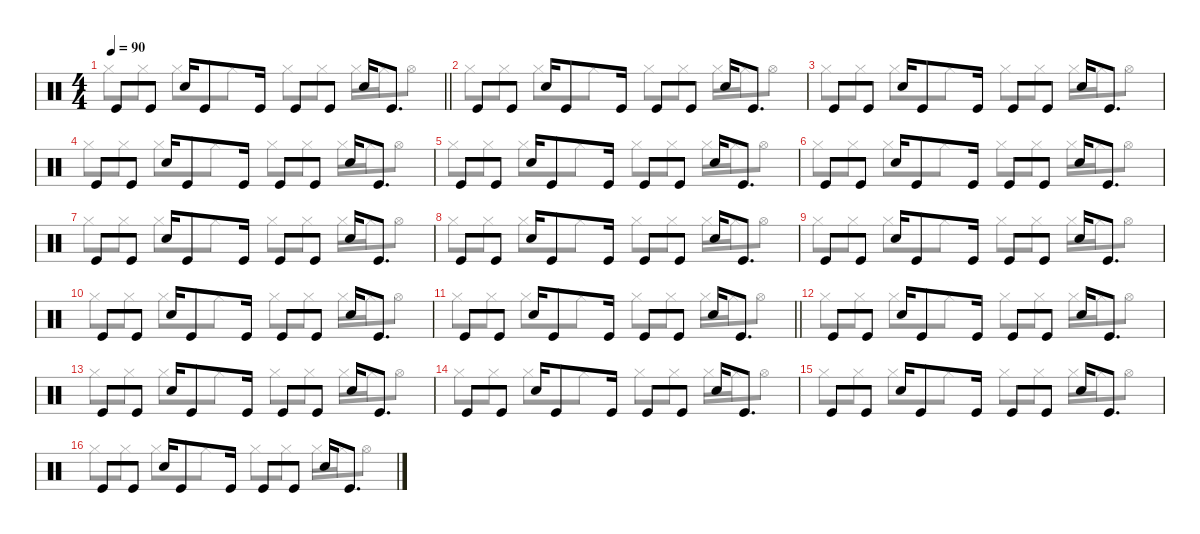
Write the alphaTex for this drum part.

\defaultSystemsLayout 4
\hideDynamics
\bracketExtendMode nobrackets
\singleTrackTrackNamePolicy hidden
\multiTrackTrackNamePolicy hidden
\otherSystemsTrackNameOrientation horizontal
\track ("Drumkit" "drm.") {instrument percussion}
\staff {score}
\articulation defaults
\voice
\ts (4 4)
\tempo 90
\clef neutral
\barLineRight lightlight
\ks c "Kick (hit)".8{dy f beam Up} "Kick (hit)".8{beam Up} "Snare (hit) 2".16{beam Up} "Kick (hit)".8{beam Up} "Kick (hit)".16{beam Up} "Kick (hit)".8{beam Up} "Kick (hit)".8{beam Up} "Snare (hit) 2".16{beam Up} "Kick (hit)".8{d beam Up}
|
"Kick (hit)".8{beam Up} "Kick (hit)".8{beam Up} "Snare (hit) 2".16{beam Up} "Kick (hit)".8{beam Up} "Kick (hit)".16{beam Up} "Kick (hit)".8{beam Up} "Kick (hit)".8{beam Up} "Snare (hit) 2".16{beam Up} "Kick (hit)".8{d beam Up} |
"Kick (hit)".8{beam Up} "Kick (hit)".8{beam Up} "Snare (hit) 2".16{beam Up} "Kick (hit)".8{beam Up} "Kick (hit)".16{beam Up} "Kick (hit)".8{beam Up} "Kick (hit)".8{beam Up} "Snare (hit) 2".16{beam Up} "Kick (hit)".8{d beam Up} |
"Kick (hit)".8{beam Up} "Kick (hit)".8{beam Up} "Snare (hit) 2".16{beam Up} "Kick (hit)".8{beam Up} "Kick (hit)".16{beam Up} "Kick (hit)".8{beam Up} "Kick (hit)".8{beam Up} "Snare (hit) 2".16{beam Up} "Kick (hit)".8{d beam Up} |
"Kick (hit)".8{beam Up} "Kick (hit)".8{beam Up} "Snare (hit) 2".16{beam Up} "Kick (hit)".8{beam Up} "Kick (hit)".16{beam Up} "Kick (hit)".8{beam Up} "Kick (hit)".8{beam Up} "Snare (hit) 2".16{beam Up} "Kick (hit)".8{d beam Up} |
"Kick (hit)".8{beam Up} "Kick (hit)".8{beam Up} "Snare (hit) 2".16{beam Up} "Kick (hit)".8{beam Up} "Kick (hit)".16{beam Up} "Kick (hit)".8{beam Up} "Kick (hit)".8{beam Up} "Snare (hit) 2".16{beam Up} "Kick (hit)".8{d beam Up} |
"Kick (hit)".8{beam Up} "Kick (hit)".8{beam Up} "Snare (hit) 2".16{beam Up} "Kick (hit)".8{beam Up} "Kick (hit)".16{beam Up} "Kick (hit)".8{beam Up} "Kick (hit)".8{beam Up} "Snare (hit) 2".16{beam Up} "Kick (hit)".8{d beam Up} |
"Kick (hit)".8{beam Up} "Kick (hit)".8{beam Up} "Snare (hit) 2".16{beam Up} "Kick (hit)".8{beam Up} "Kick (hit)".16{beam Up} "Kick (hit)".8{beam Up} "Kick (hit)".8{beam Up} "Snare (hit) 2".16{beam Up} "Kick (hit)".8{d beam Up} |
"Kick (hit)".8{beam Up} "Kick (hit)".8{beam Up} "Snare (hit) 2".16{beam Up} "Kick (hit)".8{beam Up} "Kick (hit)".16{beam Up} "Kick (hit)".8{beam Up} "Kick (hit)".8{beam Up} "Snare (hit) 2".16{beam Up} "Kick (hit)".8{d beam Up} |
"Kick (hit)".8{beam Up} "Kick (hit)".8{beam Up} "Snare (hit) 2".16{beam Up} "Kick (hit)".8{beam Up} "Kick (hit)".16{beam Up} "Kick (hit)".8{beam Up} "Kick (hit)".8{beam Up} "Snare (hit) 2".16{beam Up} "Kick (hit)".8{d beam Up} |
\barLineRight lightlight "Kick (hit)".8{beam Up} "Kick (hit)".8{beam Up} "Snare (hit) 2".16{beam Up} "Kick (hit)".8{beam Up} "Kick (hit)".16{beam Up} "Kick (hit)".8{beam Up} "Kick (hit)".8{beam Up} "Snare (hit) 2".16{beam Up} "Kick (hit)".8{d beam Up}
|
"Kick (hit)".8{beam Up} "Kick (hit)".8{beam Up} "Snare (hit) 2".16{beam Up} "Kick (hit)".8{beam Up} "Kick (hit)".16{beam Up} "Kick (hit)".8{beam Up} "Kick (hit)".8{beam Up} "Snare (hit) 2".16{beam Up} "Kick (hit)".8{d beam Up} |
"Kick (hit)".8{beam Up} "Kick (hit)".8{beam Up} "Snare (hit) 2".16{beam Up} "Kick (hit)".8{beam Up} "Kick (hit)".16{beam Up} "Kick (hit)".8{beam Up} "Kick (hit)".8{beam Up} "Snare (hit) 2".16{beam Up} "Kick (hit)".8{d beam Up} |
"Kick (hit)".8{beam Up} "Kick (hit)".8{beam Up} "Snare (hit) 2".16{beam Up} "Kick (hit)".8{beam Up} "Kick (hit)".16{beam Up} "Kick (hit)".8{beam Up} "Kick (hit)".8{beam Up} "Snare (hit) 2".16{beam Up} "Kick (hit)".8{d beam Up} |
"Kick (hit)".8{beam Up} "Kick (hit)".8{beam Up} "Snare (hit) 2".16{beam Up} "Kick (hit)".8{beam Up} "Kick (hit)".16{beam Up} "Kick (hit)".8{beam Up} "Kick (hit)".8{beam Up} "Snare (hit) 2".16{beam Up} "Kick (hit)".8{d beam Up} |
"Kick (hit)".8{beam Up} "Kick (hit)".8{beam Up} "Snare (hit) 2".16{beam Up} "Kick (hit)".8{beam Up} "Kick (hit)".16{beam Up} "Kick (hit)".8{beam Up} "Kick (hit)".8{beam Up} "Snare (hit) 2".16{beam Up} "Kick (hit)".8{d beam Up}
\voice
\clef neutral
\ottava regular
\simile none
\barLineRight lightlight
\ks c "Hi-Hat (closed)".8{dy f beam Down} "Hi-Hat (closed)".8{beam Down} "Hi-Hat (closed)".8{beam Down} "Hi-Hat (closed)".8{beam Down} "Hi-Hat (closed)".8{beam Down} "Hi-Hat (closed)".8{beam Down} "Hi-Hat (closed)".16{beam Down} "Hi-Hat (closed)".16{beam Down} "Hi-Hat (open)".8{beam Down}
|
"Hi-Hat (closed)".8{beam Down} "Hi-Hat (closed)".8{beam Down} "Hi-Hat (closed)".8{beam Down} "Hi-Hat (closed)".8{beam Down} "Hi-Hat (closed)".8{beam Down} "Hi-Hat (closed)".8{beam Down} "Hi-Hat (closed)".16{beam Down} "Hi-Hat (closed)".16{beam Down} "Hi-Hat (open)".8{beam Down} |
"Hi-Hat (closed)".8{beam Down} "Hi-Hat (closed)".8{beam Down} "Hi-Hat (closed)".8{beam Down} "Hi-Hat (closed)".8{beam Down} "Hi-Hat (closed)".8{beam Down} "Hi-Hat (closed)".8{beam Down} "Hi-Hat (closed)".16{beam Down} "Hi-Hat (closed)".16{beam Down} "Hi-Hat (open)".8{beam Down} |
"Hi-Hat (closed)".8{beam Down} "Hi-Hat (closed)".8{beam Down} "Hi-Hat (closed)".8{beam Down} "Hi-Hat (closed)".8{beam Down} "Hi-Hat (closed)".8{beam Down} "Hi-Hat (closed)".8{beam Down} "Hi-Hat (closed)".16{beam Down} "Hi-Hat (closed)".16{beam Down} "Hi-Hat (open)".8{beam Down} |
"Hi-Hat (closed)".8{beam Down} "Hi-Hat (closed)".8{beam Down} "Hi-Hat (closed)".8{beam Down} "Hi-Hat (closed)".8{beam Down} "Hi-Hat (closed)".8{beam Down} "Hi-Hat (closed)".8{beam Down} "Hi-Hat (closed)".16{beam Down} "Hi-Hat (closed)".16{beam Down} "Hi-Hat (open)".8{beam Down} |
"Hi-Hat (closed)".8{beam Down} "Hi-Hat (closed)".8{beam Down} "Hi-Hat (closed)".8{beam Down} "Hi-Hat (closed)".8{beam Down} "Hi-Hat (closed)".8{beam Down} "Hi-Hat (closed)".8{beam Down} "Hi-Hat (closed)".16{beam Down} "Hi-Hat (closed)".16{beam Down} "Hi-Hat (open)".8{beam Down} |
"Hi-Hat (closed)".8{beam Down} "Hi-Hat (closed)".8{beam Down} "Hi-Hat (closed)".8{beam Down} "Hi-Hat (closed)".8{beam Down} "Hi-Hat (closed)".8{beam Down} "Hi-Hat (closed)".8{beam Down} "Hi-Hat (closed)".16{beam Down} "Hi-Hat (closed)".16{beam Down} "Hi-Hat (open)".8{beam Down} |
"Hi-Hat (closed)".8{beam Down} "Hi-Hat (closed)".8{beam Down} "Hi-Hat (closed)".8{beam Down} "Hi-Hat (closed)".8{beam Down} "Hi-Hat (closed)".8{beam Down} "Hi-Hat (closed)".8{beam Down} "Hi-Hat (closed)".16{beam Down} "Hi-Hat (closed)".16{beam Down} "Hi-Hat (open)".8{beam Down} |
"Hi-Hat (closed)".8{beam Down} "Hi-Hat (closed)".8{beam Down} "Hi-Hat (closed)".8{beam Down} "Hi-Hat (closed)".8{beam Down} "Hi-Hat (closed)".8{beam Down} "Hi-Hat (closed)".8{beam Down} "Hi-Hat (closed)".16{beam Down} "Hi-Hat (closed)".16{beam Down} "Hi-Hat (open)".8{beam Down} |
"Hi-Hat (closed)".8{beam Down} "Hi-Hat (closed)".8{beam Down} "Hi-Hat (closed)".8{beam Down} "Hi-Hat (closed)".8{beam Down} "Hi-Hat (closed)".8{beam Down} "Hi-Hat (closed)".8{beam Down} "Hi-Hat (closed)".16{beam Down} "Hi-Hat (closed)".16{beam Down} "Hi-Hat (open)".8{beam Down} |
\barLineRight lightlight "Hi-Hat (closed)".8{beam Down} "Hi-Hat (closed)".8{beam Down} "Hi-Hat (closed)".8{beam Down} "Hi-Hat (closed)".8{beam Down} "Hi-Hat (closed)".8{beam Down} "Hi-Hat (closed)".8{beam Down} "Hi-Hat (closed)".16{beam Down} "Hi-Hat (closed)".16{beam Down} "Hi-Hat (open)".8{beam Down}
|
"Hi-Hat (closed)".8{beam Down} "Hi-Hat (closed)".8{beam Down} "Hi-Hat (closed)".8{beam Down} "Hi-Hat (closed)".8{beam Down} "Hi-Hat (closed)".8{beam Down} "Hi-Hat (closed)".8{beam Down} "Hi-Hat (closed)".16{beam Down} "Hi-Hat (closed)".16{beam Down} "Hi-Hat (open)".8{beam Down} |
"Hi-Hat (closed)".8{beam Down} "Hi-Hat (closed)".8{beam Down} "Hi-Hat (closed)".8{beam Down} "Hi-Hat (closed)".8{beam Down} "Hi-Hat (closed)".8{beam Down} "Hi-Hat (closed)".8{beam Down} "Hi-Hat (closed)".16{beam Down} "Hi-Hat (closed)".16{beam Down} "Hi-Hat (open)".8{beam Down} |
"Hi-Hat (closed)".8{beam Down} "Hi-Hat (closed)".8{beam Down} "Hi-Hat (closed)".8{beam Down} "Hi-Hat (closed)".8{beam Down} "Hi-Hat (closed)".8{beam Down} "Hi-Hat (closed)".8{beam Down} "Hi-Hat (closed)".16{beam Down} "Hi-Hat (closed)".16{beam Down} "Hi-Hat (open)".8{beam Down} |
"Hi-Hat (closed)".8{beam Down} "Hi-Hat (closed)".8{beam Down} "Hi-Hat (closed)".8{beam Down} "Hi-Hat (closed)".8{beam Down} "Hi-Hat (closed)".8{beam Down} "Hi-Hat (closed)".8{beam Down} "Hi-Hat (closed)".16{beam Down} "Hi-Hat (closed)".16{beam Down} "Hi-Hat (open)".8{beam Down} |
"Hi-Hat (closed)".8{beam Down} "Hi-Hat (closed)".8{beam Down} "Hi-Hat (closed)".8{beam Down} "Hi-Hat (closed)".8{beam Down} "Hi-Hat (closed)".8{beam Down} "Hi-Hat (closed)".8{beam Down} "Hi-Hat (closed)".16{beam Down} "Hi-Hat (closed)".16{beam Down} "Hi-Hat (open)".8{beam Down}
